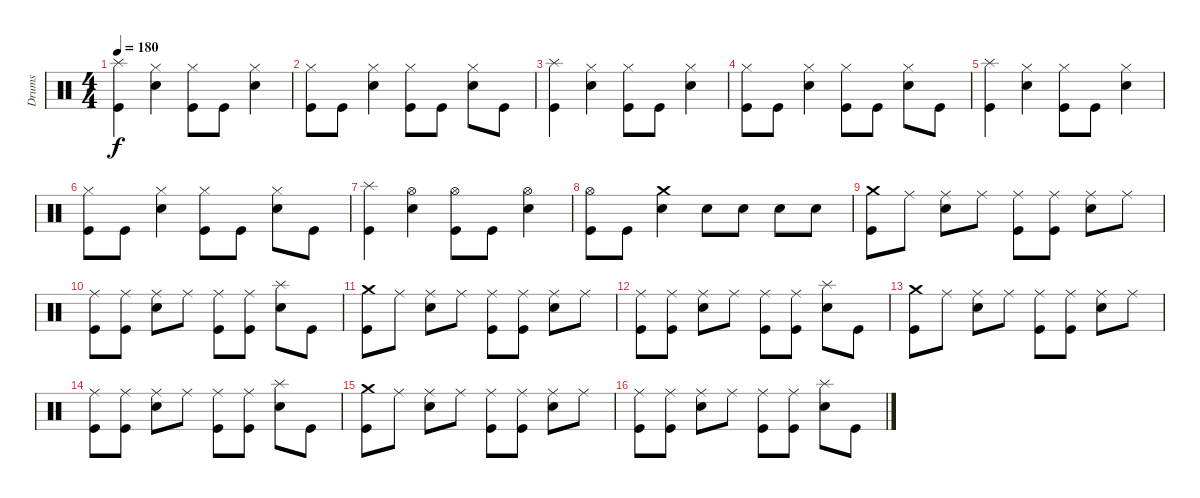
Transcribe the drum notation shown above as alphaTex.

\track ("Drums" "Drums") {instrument percussion}
\staff {score}
\articulation defaults
\ts (4 4)
\tempo 180
\clef neutral
\ks c
("Splash (hit)" "Kick (hit)").4{dy f} ("Hi-Hat (closed)" "Electric Snare (hit)").4 ("Hi-Hat (closed)" "Kick (hit)").8 "Kick (hit)".8 ("Hi-Hat (closed)" "Electric Snare (hit)").4 |
("Hi-Hat (closed)" "Kick (hit)").8 "Kick (hit)".8 ("Hi-Hat (closed)" "Electric Snare (hit)").4 ("Hi-Hat (closed)" "Kick (hit)").8 "Kick (hit)".8 ("Hi-Hat (closed)" "Electric Snare (hit)").8 "Kick (hit)".8 |
("Splash (hit)" "Kick (hit)").4 ("Hi-Hat (closed)" "Electric Snare (hit)").4 ("Hi-Hat (closed)" "Kick (hit)").8 "Kick (hit)".8 ("Hi-Hat (closed)" "Electric Snare (hit)").4 |
("Hi-Hat (closed)" "Kick (hit)").8 "Kick (hit)".8 ("Hi-Hat (closed)" "Electric Snare (hit)").4 ("Hi-Hat (closed)" "Kick (hit)").8 "Kick (hit)".8 ("Hi-Hat (closed)" "Electric Snare (hit)").8 "Kick (hit)".8 |
("Splash (hit)" "Kick (hit)").4 ("Hi-Hat (closed)" "Electric Snare (hit)").4 ("Hi-Hat (closed)" "Kick (hit)").8 "Kick (hit)".8 ("Hi-Hat (closed)" "Electric Snare (hit)").4 |
("Hi-Hat (closed)" "Kick (hit)").8 "Kick (hit)".8 ("Hi-Hat (closed)" "Electric Snare (hit)").4 ("Hi-Hat (closed)" "Kick (hit)").8 "Kick (hit)".8 ("Hi-Hat (closed)" "Electric Snare (hit)").8 "Kick (hit)".8 |
("Splash (hit)" "Kick (hit)").4 ("Hi-Hat (open)" "Electric Snare (hit)").4 ("Hi-Hat (open)" "Kick (hit)").8 "Kick (hit)".8 ("Hi-Hat (open)" "Electric Snare (hit)").4 |
("Hi-Hat (open)" "Kick (hit)").8 "Kick (hit)".8 ("Crash medium (hit)" "Electric Snare (hit)").4 "Electric Snare (hit)".8 "Electric Snare (hit)".8 "Electric Snare (hit)".8 "Electric Snare (hit)".8 |
("Crash medium (hit)" "Kick (hit)").8 "Ride (middle)".8 ("Ride (middle)" "Electric Snare (hit)").8 "Ride (middle)".8 ("Ride (middle)" "Kick (hit)").8 ("Ride (middle)" "Kick (hit)").8 ("Ride (middle)" "Electric Snare (hit)").8 "Ride (middle)".8 |
("Ride (middle)" "Kick (hit)").8 ("Ride (middle)" "Kick (hit)").8 ("Ride (middle)" "Electric Snare (hit)").8 "Ride (middle)".8 ("Ride (middle)" "Kick (hit)").8 ("Ride (middle)" "Kick (hit)").8 ("Splash (hit)" "Electric Snare (hit)").8 "Kick (hit)".8 |
("Crash medium (hit)" "Kick (hit)").8 "Ride (middle)".8 ("Ride (middle)" "Electric Snare (hit)").8 "Ride (middle)".8 ("Ride (middle)" "Kick (hit)").8 ("Ride (middle)" "Kick (hit)").8 ("Ride (middle)" "Electric Snare (hit)").8 "Ride (middle)".8 |
("Ride (middle)" "Kick (hit)").8 ("Ride (middle)" "Kick (hit)").8 ("Ride (middle)" "Electric Snare (hit)").8 "Ride (middle)".8 ("Ride (middle)" "Kick (hit)").8 ("Ride (middle)" "Kick (hit)").8 ("Splash (hit)" "Electric Snare (hit)").8 "Kick (hit)".8 |
("Crash medium (hit)" "Kick (hit)").8 "Ride (middle)".8 ("Ride (middle)" "Electric Snare (hit)").8 "Ride (middle)".8 ("Ride (middle)" "Kick (hit)").8 ("Ride (middle)" "Kick (hit)").8 ("Ride (middle)" "Electric Snare (hit)").8 "Ride (middle)".8 |
("Ride (middle)" "Kick (hit)").8 ("Ride (middle)" "Kick (hit)").8 ("Ride (middle)" "Electric Snare (hit)").8 "Ride (middle)".8 ("Ride (middle)" "Kick (hit)").8 ("Ride (middle)" "Kick (hit)").8 ("Splash (hit)" "Electric Snare (hit)").8 "Kick (hit)".8 |
("Crash medium (hit)" "Kick (hit)").8 "Ride (middle)".8 ("Ride (middle)" "Electric Snare (hit)").8 "Ride (middle)".8 ("Ride (middle)" "Kick (hit)").8 ("Ride (middle)" "Kick (hit)").8 ("Ride (middle)" "Electric Snare (hit)").8 "Ride (middle)".8 |
("Ride (middle)" "Kick (hit)").8 ("Ride (middle)" "Kick (hit)").8 ("Ride (middle)" "Electric Snare (hit)").8 "Ride (middle)".8 ("Ride (middle)" "Kick (hit)").8 ("Ride (middle)" "Kick (hit)").8 ("Splash (hit)" "Electric Snare (hit)").8 "Kick (hit)".8
